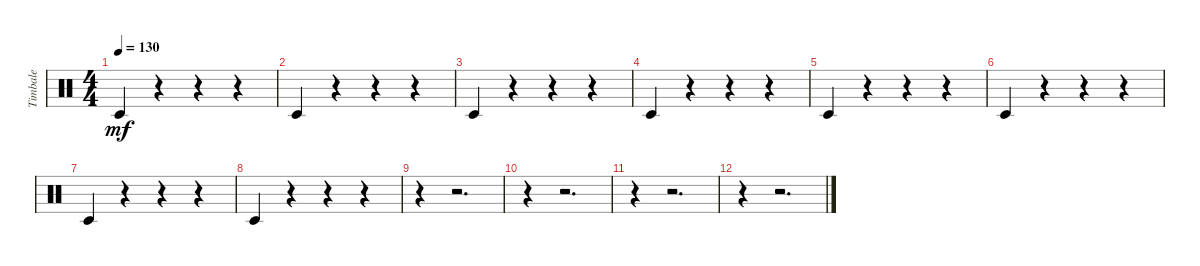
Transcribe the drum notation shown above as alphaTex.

\track ("Timbale" "Timbale") {instrument percussion}
\staff {score}
\articulation defaults
\ts (4 4)
\tempo 130
\clef neutral
\ks c "Timbale low (hit)".4{dy mf}
r.4 r.4 r.4 |
"Timbale low (hit)".4 r.4 r.4 r.4 |
"Timbale low (hit)".4 r.4 r.4 r.4 |
"Timbale low (hit)".4 r.4 r.4 r.4 |
"Timbale low (hit)".4 r.4 r.4 r.4 |
"Timbale low (hit)".4 r.4 r.4 r.4 |
"Timbale low (hit)".4 r.4 r.4 r.4 |
"Timbale low (hit)".4 r.4 r.4 r.4 |
r.4 r.2{d} |
r.4 r.2{d} |
r.4 r.2{d} |
r.4 r.2{d}
